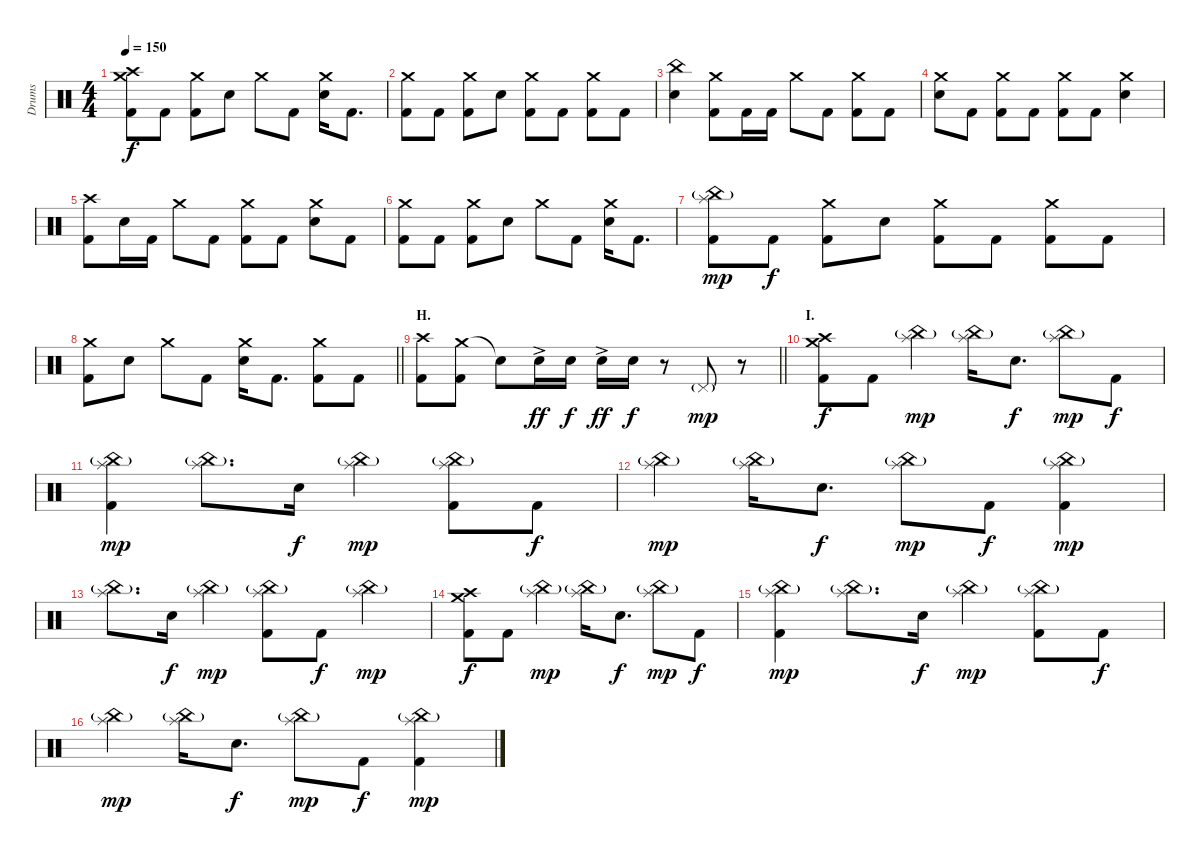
\track ("Drums" "Drums") {instrument percussion}
\staff {score}
\articulation defaults
\ts (4 4)
\tempo 150
\clef neutral
\ks c
("Crash medium (hit)" "Crash high (hit)" "Kick (hit) 2").8{dy f} "Kick (hit) 2".8 ("Crash medium (hit)" "Kick (hit) 2").8 "Electric Snare (hit)".8 "Crash medium (hit)".8 "Kick (hit) 2".8 ("Crash medium (hit)" "Electric Snare (hit)").16 "Kick (hit) 2".8{d} |
("Crash medium (hit)" "Kick (hit) 2").8 "Kick (hit) 2".8 ("Crash medium (hit)" "Kick (hit) 2").8 "Electric Snare (hit)".8 ("Crash medium (hit)" "Kick (hit) 2").8 "Kick (hit) 2".8 ("Crash medium (hit)" "Kick (hit) 2").8 "Kick (hit) 2".8 |
("China (hit)" "Electric Snare (hit)").4 ("Crash medium (hit)" "Kick (hit) 2").8 "Kick (hit) 2".16 "Kick (hit) 2".16 "Crash medium (hit)".8 "Kick (hit) 2".8 ("Crash medium (hit)" "Kick (hit) 2").8 "Kick (hit) 2".8 |
("Crash medium (hit)" "Electric Snare (hit)").8 "Kick (hit) 2".8 ("Crash medium (hit)" "Kick (hit) 2").8 "Kick (hit) 2".8 ("Crash medium (hit)" "Kick (hit) 2").8 "Kick (hit) 2".8 ("Crash medium (hit)" "Electric Snare (hit)").4 |
("Crash high (hit)" "Kick (hit) 2").8 "Electric Snare (hit)".16 "Kick (hit) 2".16 "Crash medium (hit)".8 "Kick (hit) 2".8 ("Crash medium (hit)" "Kick (hit) 2").8 "Kick (hit) 2".8 ("Crash medium (hit)" "Electric Snare (hit)").8 "Kick (hit) 2".8 |
("Crash medium (hit)" "Kick (hit) 2").8 "Kick (hit) 2".8 ("Crash medium (hit)" "Kick (hit) 2").8 "Electric Snare (hit)".8 "Crash medium (hit)".8 "Kick (hit) 2".8 ("Crash medium (hit)" "Electric Snare (hit)").16 "Kick (hit) 2".8{d} |
("China (hit)"{g} "Splash (hit)" "Kick (hit) 2").8{dy mp} "Kick (hit) 2".8{dy f} ("Crash medium (hit)" "Kick (hit) 2").8 "Electric Snare (hit)".8 ("Crash medium (hit)" "Kick (hit) 2").8 "Kick (hit) 2".8 ("Crash medium (hit)" "Kick (hit) 2").8 "Kick (hit) 2".8 |
\barLineRight lightlight
("Crash medium (hit)" "Kick (hit) 2").8 "Electric Snare (hit)".8 "Crash medium (hit)".8 "Kick (hit) 2".8 ("Crash medium (hit)" "Electric Snare (hit)").16 "Kick (hit) 2".8{d} ("Crash medium (hit)" "Kick (hit) 2").8 "Kick (hit) 2".8 |
\section ("" "H.")
\barLineRight lightlight
("Crash high (hit)" "Kick (hit) 2").8 ("Crash medium (hit)" "Kick (hit) 2").8 "Snare (hit)"{t}.8 "Electric Snare (hit)"{ac}.16{dy ff} "Electric Snare (hit)".16{dy f} "Electric Snare (hit)"{ac}.16{dy ff} "Electric Snare (hit)".16{dy f} r.8 "Pedal Hi-Hat (hit)"{g}.8{dy mp} r.8 |
\section ("" "I.")
("Crash medium (hit)" "Crash high (hit)" "Kick (hit) 2").8{dy f} "Kick (hit) 2".8 ("China (hit)"{g} "Splash (hit)").4{dy mp} ("China (hit)"{g} "Splash (hit)").16 "Electric Snare (hit)".8{d dy f} ("China (hit)"{g} "Splash (hit)").8{dy mp} "Kick (hit) 2".8{dy f} |
("China (hit)"{g} "Splash (hit)" "Kick (hit) 2").4{dy mp} ("China (hit)"{g} "Splash (hit)").8{d} "Electric Snare (hit)".16{dy f} ("China (hit)"{g} "Splash (hit)").4{dy mp} ("China (hit)"{g} "Splash (hit)" "Kick (hit) 2").8 "Kick (hit) 2".8{dy f} |
("China (hit)"{g} "Splash (hit)").4{dy mp} ("China (hit)"{g} "Splash (hit)").16 "Electric Snare (hit)".8{d dy f} ("China (hit)"{g} "Splash (hit)").8{dy mp} "Kick (hit) 2".8{dy f} ("China (hit)"{g} "Splash (hit)" "Kick (hit) 2").4{dy mp} |
("China (hit)"{g} "Splash (hit)").8{d} "Electric Snare (hit)".16{dy f} ("China (hit)"{g} "Splash (hit)").4{dy mp} ("China (hit)"{g} "Splash (hit)" "Kick (hit) 2").8 "Kick (hit) 2".8{dy f} ("China (hit)"{g} "Splash (hit)").4{dy mp} |
("Crash medium (hit)" "Crash high (hit)" "Kick (hit) 2").8{dy f} "Kick (hit) 2".8 ("China (hit)"{g} "Splash (hit)").4{dy mp} ("China (hit)"{g} "Splash (hit)").16 "Electric Snare (hit)".8{d dy f} ("China (hit)"{g} "Splash (hit)").8{dy mp} "Kick (hit) 2".8{dy f} |
("China (hit)"{g} "Splash (hit)" "Kick (hit) 2").4{dy mp} ("China (hit)"{g} "Splash (hit)").8{d} "Electric Snare (hit)".16{dy f} ("China (hit)"{g} "Splash (hit)").4{dy mp} ("China (hit)"{g} "Splash (hit)" "Kick (hit) 2").8 "Kick (hit) 2".8{dy f} |
("China (hit)"{g} "Splash (hit)").4{dy mp} ("China (hit)"{g} "Splash (hit)").16 "Electric Snare (hit)".8{d dy f} ("China (hit)"{g} "Splash (hit)").8{dy mp} "Kick (hit) 2".8{dy f} ("China (hit)"{g} "Splash (hit)" "Kick (hit) 2").4{dy mp}
